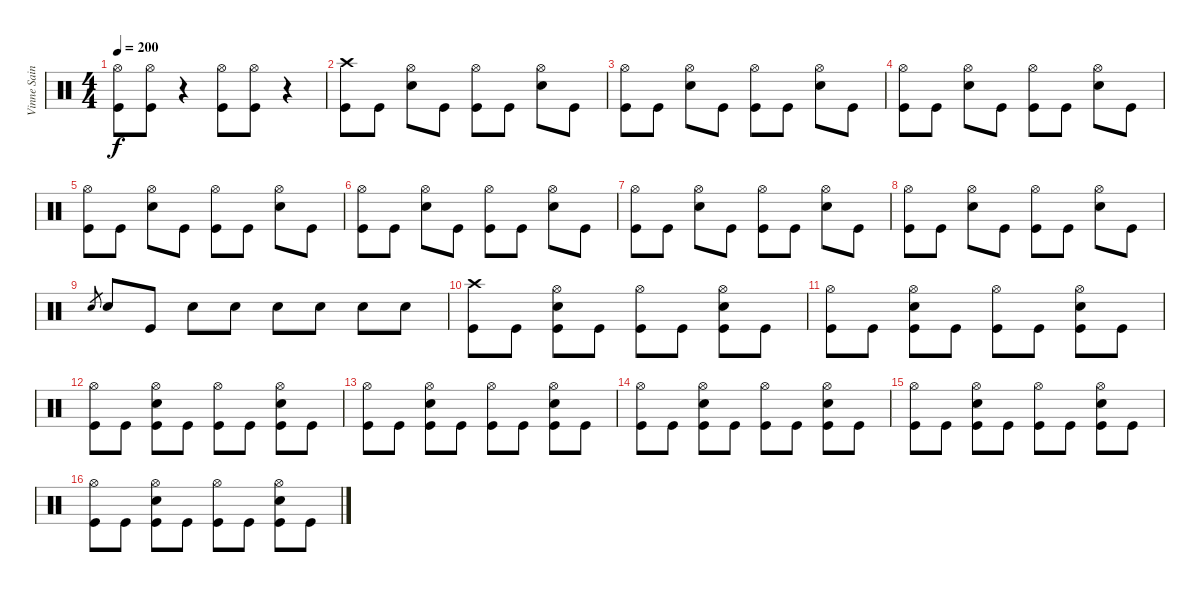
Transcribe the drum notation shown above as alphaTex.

\track ("Vinne Saint James" "Vinne Sain") {instrument percussion}
\staff {score}
\articulation defaults
\ts (4 4)
\tempo 200
\clef neutral
\ks c
("Hi-Hat (open)" "Kick (hit)").8{dy f} ("Hi-Hat (open)" "Kick (hit)").8 r.4 ("Hi-Hat (open)" "Kick (hit)").8 ("Hi-Hat (open)" "Kick (hit)").8 r.4 |
("Crash high (hit)" "Kick (hit)").8 "Kick (hit)".8 ("Hi-Hat (open)" "Electric Snare (hit)").8 "Kick (hit)".8 ("Hi-Hat (open)" "Kick (hit)").8 "Kick (hit)".8 ("Hi-Hat (open)" "Electric Snare (hit)").8 "Kick (hit)".8 |
("Hi-Hat (open)" "Kick (hit)").8 "Kick (hit)".8 ("Hi-Hat (open)" "Electric Snare (hit)").8 "Kick (hit)".8 ("Hi-Hat (open)" "Kick (hit)").8 "Kick (hit)".8 ("Hi-Hat (open)" "Electric Snare (hit)").8 "Kick (hit)".8 |
("Hi-Hat (open)" "Kick (hit)").8 "Kick (hit)".8 ("Hi-Hat (open)" "Electric Snare (hit)").8 "Kick (hit)".8 ("Hi-Hat (open)" "Kick (hit)").8 "Kick (hit)".8 ("Hi-Hat (open)" "Electric Snare (hit)").8 "Kick (hit)".8 |
("Hi-Hat (open)" "Kick (hit)").8 "Kick (hit)".8 ("Hi-Hat (open)" "Electric Snare (hit)").8 "Kick (hit)".8 ("Hi-Hat (open)" "Kick (hit)").8 "Kick (hit)".8 ("Hi-Hat (open)" "Electric Snare (hit)").8 "Kick (hit)".8 |
("Hi-Hat (open)" "Kick (hit)").8 "Kick (hit)".8 ("Hi-Hat (open)" "Electric Snare (hit)").8 "Kick (hit)".8 ("Hi-Hat (open)" "Kick (hit)").8 "Kick (hit)".8 ("Hi-Hat (open)" "Electric Snare (hit)").8 "Kick (hit)".8 |
("Hi-Hat (open)" "Kick (hit)").8 "Kick (hit)".8 ("Hi-Hat (open)" "Electric Snare (hit)").8 "Kick (hit)".8 ("Hi-Hat (open)" "Kick (hit)").8 "Kick (hit)".8 ("Hi-Hat (open)" "Electric Snare (hit)").8 "Kick (hit)".8 |
("Hi-Hat (open)" "Kick (hit)").8 "Kick (hit)".8 ("Hi-Hat (open)" "Electric Snare (hit)").8 "Kick (hit)".8 ("Hi-Hat (open)" "Kick (hit)").8 "Kick (hit)".8 ("Hi-Hat (open)" "Electric Snare (hit)").8 "Kick (hit)".8 |
"Electric Snare (hit)".8{gr} "Electric Snare (hit)".8 "Kick (hit)".8 "Electric Snare (hit)".8 "Electric Snare (hit)".8 "Electric Snare (hit)".8 "Electric Snare (hit)".8 "Electric Snare (hit)".8 "Electric Snare (hit)".8 |
("Crash high (hit)" "Kick (hit)").8 "Kick (hit)".8 ("Hi-Hat (open)" "Electric Snare (hit)" "Kick (hit)").8 "Kick (hit)".8 ("Hi-Hat (open)" "Kick (hit)").8 "Kick (hit)".8 ("Hi-Hat (open)" "Electric Snare (hit)" "Kick (hit)").8 "Kick (hit)".8 |
("Hi-Hat (open)" "Kick (hit)").8 "Kick (hit)".8 ("Hi-Hat (open)" "Electric Snare (hit)" "Kick (hit)").8 "Kick (hit)".8 ("Hi-Hat (open)" "Kick (hit)").8 "Kick (hit)".8 ("Hi-Hat (open)" "Electric Snare (hit)" "Kick (hit)").8 "Kick (hit)".8 |
("Hi-Hat (open)" "Kick (hit)").8 "Kick (hit)".8 ("Hi-Hat (open)" "Electric Snare (hit)" "Kick (hit)").8 "Kick (hit)".8 ("Hi-Hat (open)" "Kick (hit)").8 "Kick (hit)".8 ("Hi-Hat (open)" "Electric Snare (hit)" "Kick (hit)").8 "Kick (hit)".8 |
("Hi-Hat (open)" "Kick (hit)").8 "Kick (hit)".8 ("Hi-Hat (open)" "Electric Snare (hit)" "Kick (hit)").8 "Kick (hit)".8 ("Hi-Hat (open)" "Kick (hit)").8 "Kick (hit)".8 ("Hi-Hat (open)" "Electric Snare (hit)" "Kick (hit)").8 "Kick (hit)".8 |
("Hi-Hat (open)" "Kick (hit)").8 "Kick (hit)".8 ("Hi-Hat (open)" "Electric Snare (hit)" "Kick (hit)").8 "Kick (hit)".8 ("Hi-Hat (open)" "Kick (hit)").8 "Kick (hit)".8 ("Hi-Hat (open)" "Electric Snare (hit)" "Kick (hit)").8 "Kick (hit)".8 |
("Hi-Hat (open)" "Kick (hit)").8 "Kick (hit)".8 ("Hi-Hat (open)" "Electric Snare (hit)" "Kick (hit)").8 "Kick (hit)".8 ("Hi-Hat (open)" "Kick (hit)").8 "Kick (hit)".8 ("Hi-Hat (open)" "Electric Snare (hit)" "Kick (hit)").8 "Kick (hit)".8 |
("Hi-Hat (open)" "Kick (hit)").8 "Kick (hit)".8 ("Hi-Hat (open)" "Electric Snare (hit)" "Kick (hit)").8 "Kick (hit)".8 ("Hi-Hat (open)" "Kick (hit)").8 "Kick (hit)".8 ("Hi-Hat (open)" "Electric Snare (hit)" "Kick (hit)").8 "Kick (hit)".8
